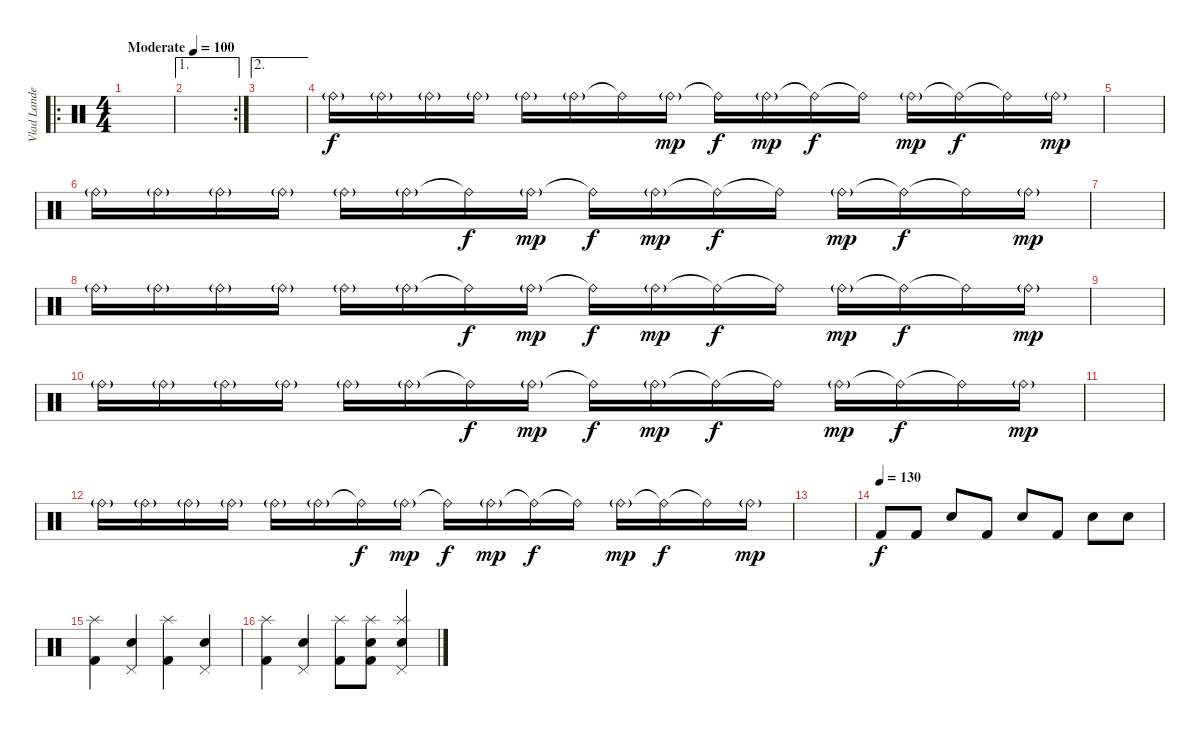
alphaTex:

\track ("Vlad Landeros" "Vlad Lande") {instrument percussion}
\staff {score}
\articulation defaults
\ro
\ts (4 4)
\tempo (100 "Moderate")
\clef neutral
\ks c
|
\ae 1
\rc 2
|
\ae 2
|
"Ride (bell)"{g}.16 "Ride (bell)"{g}.16 "Ride (bell)"{g}.16 "Ride (bell)"{g}.16 "Ride (bell)"{g}.16 "Ride (bell)"{g}.16 "Ride (bell)"{t}.16{dy f} "Ride (bell)"{g}.16{dy mp} "Ride (bell)"{t}.16{dy f} "Ride (bell)"{g}.16{dy mp} "Ride (bell)"{t}.16{dy f} "Ride (bell)"{t}.16 "Ride (bell)"{g}.16{dy mp} "Ride (bell)"{t}.16{dy f} "Ride (bell)"{t}.16 "Ride (bell)"{g}.16{dy mp} |
|
"Ride (bell)"{g}.16 "Ride (bell)"{g}.16 "Ride (bell)"{g}.16 "Ride (bell)"{g}.16 "Ride (bell)"{g}.16 "Ride (bell)"{g}.16 "Ride (bell)"{t}.16{dy f} "Ride (bell)"{g}.16{dy mp} "Ride (bell)"{t}.16{dy f} "Ride (bell)"{g}.16{dy mp} "Ride (bell)"{t}.16{dy f} "Ride (bell)"{t}.16 "Ride (bell)"{g}.16{dy mp} "Ride (bell)"{t}.16{dy f} "Ride (bell)"{t}.16 "Ride (bell)"{g}.16{dy mp} |
|
"Ride (bell)"{g}.16 "Ride (bell)"{g}.16 "Ride (bell)"{g}.16 "Ride (bell)"{g}.16 "Ride (bell)"{g}.16 "Ride (bell)"{g}.16 "Ride (bell)"{t}.16{dy f} "Ride (bell)"{g}.16{dy mp} "Ride (bell)"{t}.16{dy f} "Ride (bell)"{g}.16{dy mp} "Ride (bell)"{t}.16{dy f} "Ride (bell)"{t}.16 "Ride (bell)"{g}.16{dy mp} "Ride (bell)"{t}.16{dy f} "Ride (bell)"{t}.16 "Ride (bell)"{g}.16{dy mp} |
|
"Ride (bell)"{g}.16 "Ride (bell)"{g}.16 "Ride (bell)"{g}.16 "Ride (bell)"{g}.16 "Ride (bell)"{g}.16 "Ride (bell)"{g}.16 "Ride (bell)"{t}.16{dy f} "Ride (bell)"{g}.16{dy mp} "Ride (bell)"{t}.16{dy f} "Ride (bell)"{g}.16{dy mp} "Ride (bell)"{t}.16{dy f} "Ride (bell)"{t}.16 "Ride (bell)"{g}.16{dy mp} "Ride (bell)"{t}.16{dy f} "Ride (bell)"{t}.16 "Ride (bell)"{g}.16{dy mp} |
|
"Ride (bell)"{g}.16 "Ride (bell)"{g}.16 "Ride (bell)"{g}.16 "Ride (bell)"{g}.16 "Ride (bell)"{g}.16 "Ride (bell)"{g}.16 "Ride (bell)"{t}.16{dy f} "Ride (bell)"{g}.16{dy mp} "Ride (bell)"{t}.16{dy f} "Ride (bell)"{g}.16{dy mp} "Ride (bell)"{t}.16{dy f} "Ride (bell)"{t}.16 "Ride (bell)"{g}.16{dy mp} "Ride (bell)"{t}.16{dy f} "Ride (bell)"{t}.16 "Ride (bell)"{g}.16{dy mp} |
|
\tempo (130)
"Kick (hit) 2".8{dy f} "Kick (hit) 2".8 "Electric Snare (hit)".8 "Kick (hit) 2".8 "Electric Snare (hit)".8 "Kick (hit) 2".8 "Electric Snare (hit)".8 "Snare (hit) 2".8 |
("Splash (hit)" "Kick (hit) 2").4 ("Pedal Hi-Hat (hit)" "Snare (hit) 2").4 ("Splash (hit)" "Kick (hit) 2").4 ("Pedal Hi-Hat (hit)" "Snare (hit) 2").4 |
("Splash (hit)" "Kick (hit) 2").4 ("Pedal Hi-Hat (hit)" "Snare (hit) 2").4 ("Splash (hit)" "Kick (hit) 2").8 ("Splash (hit)" "Snare (hit) 2" "Kick (hit) 2").8 ("Splash (hit)" "Pedal Hi-Hat (hit)" "Snare (hit) 2").4
